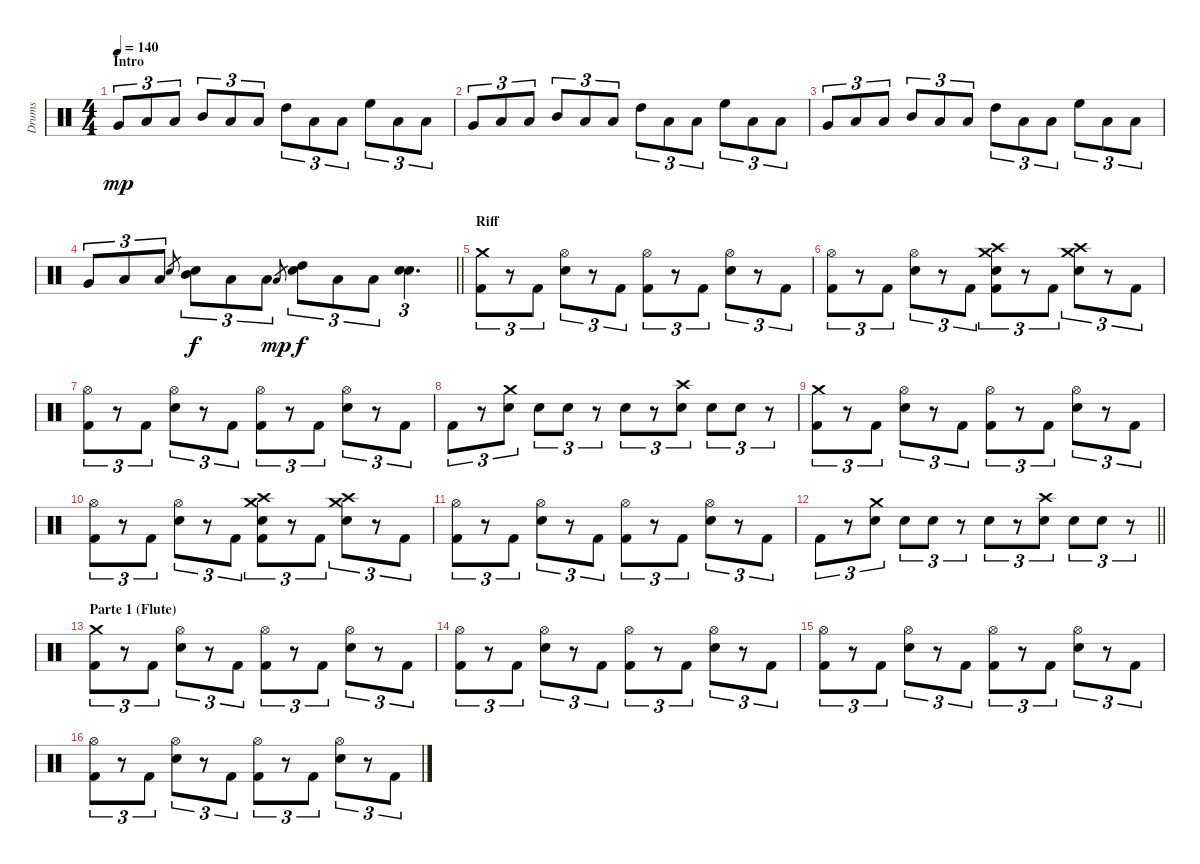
\track ("Drums" "Drums") {instrument percussion}
\staff {score}
\articulation defaults
\ts (4 4)
\section ("" "Intro")
\tempo 140
\clef neutral
\ks c "Very Low Tom (hit)".8{tu (3 2) dy mp} "Low Floor Tom (hit)".8{tu (3 2)} "Low Floor Tom (hit)".8{tu (3 2)} "Mid Tom (hit)".8{tu (3 2)} "Low Floor Tom (hit)".8{tu (3 2)} "Low Floor Tom (hit)".8{tu (3 2)} "High Tom (hit)".8{tu (3 2)} "Low Floor Tom (hit)".8{tu (3 2)} "Low Floor Tom (hit)".8{tu (3 2)} "High Floor Tom (hit)".8{tu (3 2)} "Low Floor Tom (hit)".8{tu (3 2)} "Low Floor Tom (hit)".8{tu (3 2)}
|
"Very Low Tom (hit)".8{tu (3 2)} "Low Floor Tom (hit)".8{tu (3 2)} "Low Floor Tom (hit)".8{tu (3 2)} "Mid Tom (hit)".8{tu (3 2)} "Low Floor Tom (hit)".8{tu (3 2)} "Low Floor Tom (hit)".8{tu (3 2)} "High Tom (hit)".8{tu (3 2)} "Low Floor Tom (hit)".8{tu (3 2)} "Low Floor Tom (hit)".8{tu (3 2)} "High Floor Tom (hit)".8{tu (3 2)} "Low Floor Tom (hit)".8{tu (3 2)} "Low Floor Tom (hit)".8{tu (3 2)} |
"Very Low Tom (hit)".8{tu (3 2)} "Low Floor Tom (hit)".8{tu (3 2)} "Low Floor Tom (hit)".8{tu (3 2)} "Mid Tom (hit)".8{tu (3 2)} "Low Floor Tom (hit)".8{tu (3 2)} "Low Floor Tom (hit)".8{tu (3 2)} "High Tom (hit)".8{tu (3 2)} "Low Floor Tom (hit)".8{tu (3 2)} "Low Floor Tom (hit)".8{tu (3 2)} "High Floor Tom (hit)".8{tu (3 2)} "Low Floor Tom (hit)".8{tu (3 2)} "Low Floor Tom (hit)".8{tu (3 2)} |
\barLineRight lightlight "Very Low Tom (hit)".8{tu (3 2)} "Low Floor Tom (hit)".8{tu (3 2)} "Low Floor Tom (hit)".8{tu (3 2)} "Snare (hit) 2".8{gr}
("Snare (hit) 2" "Mid Tom (hit)").8{tu (3 2) dy f} "Low Floor Tom (hit)".8{tu (3 2)} "Low Floor Tom (hit)".8{tu (3 2)} "Low Floor Tom (hit)".8{gr dy mp} ("Snare (hit) 2" "High Tom (hit)").8{tu (3 2) dy f} "Low Floor Tom (hit)".8{tu (3 2)} "Low Floor Tom (hit)".8{tu (3 2)} ("Snare (hit) 2" "Snare (hit) 2").4{d tu (3 2)} |
\section ("" "Riff")
("Crash medium (hit)" "Kick (hit) 2").8{tu (3 2)} r.8{tu (3 2)} "Kick (hit) 2".8{tu (3 2)} ("Hi-Hat (open)" "Snare (hit) 2").8{tu (3 2)} r.8{tu (3 2)} "Kick (hit) 2".8{tu (3 2)} ("Hi-Hat (open)" "Kick (hit) 2").8{tu (3 2)} r.8{tu (3 2)} "Kick (hit) 2".8{tu (3 2)} ("Hi-Hat (open)" "Snare (hit) 2").8{tu (3 2)} r.8{tu (3 2)} "Kick (hit) 2".8{tu (3 2)} |
("Hi-Hat (open)" "Kick (hit) 2").8{tu (3 2)} r.8{tu (3 2)} "Kick (hit) 2".8{tu (3 2)} ("Hi-Hat (open)" "Snare (hit) 2").8{tu (3 2)} r.8{tu (3 2)} "Kick (hit) 2".8{tu (3 2)} ("Crash medium (hit)" "Crash high (hit)" "Snare (hit) 2" "Kick (hit) 2").8{tu (3 2)} r.8{tu (3 2)} "Kick (hit) 2".8{tu (3 2)} ("Crash medium (hit)" "Crash high (hit)" "Snare (hit) 2").8{tu (3 2)} r.8{tu (3 2)} "Kick (hit) 2".8{tu (3 2)} |
("Hi-Hat (open)" "Kick (hit) 2").8{tu (3 2)} r.8{tu (3 2)} "Kick (hit) 2".8{tu (3 2)} ("Hi-Hat (open)" "Snare (hit) 2").8{tu (3 2)} r.8{tu (3 2)} "Kick (hit) 2".8{tu (3 2)} ("Hi-Hat (open)" "Kick (hit) 2").8{tu (3 2)} r.8{tu (3 2)} "Kick (hit) 2".8{tu (3 2)} ("Hi-Hat (open)" "Snare (hit) 2").8{tu (3 2)} r.8{tu (3 2)} "Kick (hit) 2".8{tu (3 2)} |
"Kick (hit) 2".8{tu (3 2)} r.8{tu (3 2)} ("Crash medium (hit)" "Snare (hit) 2").8{tu (3 2)} "Snare (hit) 2".8{tu (3 2)} "Snare (hit) 2".8{tu (3 2)} r.8{tu (3 2)} "Snare (hit) 2".8{tu (3 2)} r.8{tu (3 2)} ("Crash high (hit)" "Snare (hit) 2").8{tu (3 2)} "Snare (hit) 2".8{tu (3 2)} "Snare (hit) 2".8{tu (3 2)} r.8{tu (3 2)} |
("Crash medium (hit)" "Kick (hit) 2").8{tu (3 2)} r.8{tu (3 2)} "Kick (hit) 2".8{tu (3 2)} ("Hi-Hat (open)" "Snare (hit) 2").8{tu (3 2)} r.8{tu (3 2)} "Kick (hit) 2".8{tu (3 2)} ("Hi-Hat (open)" "Kick (hit) 2").8{tu (3 2)} r.8{tu (3 2)} "Kick (hit) 2".8{tu (3 2)} ("Hi-Hat (open)" "Snare (hit) 2").8{tu (3 2)} r.8{tu (3 2)} "Kick (hit) 2".8{tu (3 2)} |
("Hi-Hat (open)" "Kick (hit) 2").8{tu (3 2)} r.8{tu (3 2)} "Kick (hit) 2".8{tu (3 2)} ("Hi-Hat (open)" "Snare (hit) 2").8{tu (3 2)} r.8{tu (3 2)} "Kick (hit) 2".8{tu (3 2)} ("Crash medium (hit)" "Crash high (hit)" "Snare (hit) 2" "Kick (hit) 2").8{tu (3 2)} r.8{tu (3 2)} "Kick (hit) 2".8{tu (3 2)} ("Crash medium (hit)" "Crash high (hit)" "Snare (hit) 2").8{tu (3 2)} r.8{tu (3 2)} "Kick (hit) 2".8{tu (3 2)} |
("Hi-Hat (open)" "Kick (hit) 2").8{tu (3 2)} r.8{tu (3 2)} "Kick (hit) 2".8{tu (3 2)} ("Hi-Hat (open)" "Snare (hit) 2").8{tu (3 2)} r.8{tu (3 2)} "Kick (hit) 2".8{tu (3 2)} ("Hi-Hat (open)" "Kick (hit) 2").8{tu (3 2)} r.8{tu (3 2)} "Kick (hit) 2".8{tu (3 2)} ("Hi-Hat (open)" "Snare (hit) 2").8{tu (3 2)} r.8{tu (3 2)} "Kick (hit) 2".8{tu (3 2)} |
\barLineRight lightlight "Kick (hit) 2".8{tu (3 2)}
r.8{tu (3 2)} ("Crash medium (hit)" "Snare (hit) 2").8{tu (3 2)} "Snare (hit) 2".8{tu (3 2)} "Snare (hit) 2".8{tu (3 2)} r.8{tu (3 2)} "Snare (hit) 2".8{tu (3 2)} r.8{tu (3 2)} ("Crash high (hit)" "Snare (hit) 2").8{tu (3 2)} "Snare (hit) 2".8{tu (3 2)} "Snare (hit) 2".8{tu (3 2)} r.8{tu (3 2)} |
\section ("" "Parte 1 (Flute)")
("Crash medium (hit)" "Kick (hit) 2").8{tu (3 2)} r.8{tu (3 2)} "Kick (hit) 2".8{tu (3 2)} ("Hi-Hat (open)" "Snare (hit) 2").8{tu (3 2)} r.8{tu (3 2)} "Kick (hit) 2".8{tu (3 2)} ("Hi-Hat (open)" "Kick (hit) 2").8{tu (3 2)} r.8{tu (3 2)} "Kick (hit) 2".8{tu (3 2)} ("Hi-Hat (open)" "Snare (hit) 2").8{tu (3 2)} r.8{tu (3 2)} "Kick (hit) 2".8{tu (3 2)} |
("Hi-Hat (open)" "Kick (hit) 2").8{tu (3 2)} r.8{tu (3 2)} "Kick (hit) 2".8{tu (3 2)} ("Hi-Hat (open)" "Snare (hit) 2").8{tu (3 2)} r.8{tu (3 2)} "Kick (hit) 2".8{tu (3 2)} ("Hi-Hat (open)" "Kick (hit) 2").8{tu (3 2)} r.8{tu (3 2)} "Kick (hit) 2".8{tu (3 2)} ("Hi-Hat (open)" "Snare (hit) 2").8{tu (3 2)} r.8{tu (3 2)} "Kick (hit) 2".8{tu (3 2)} |
("Hi-Hat (open)" "Kick (hit) 2").8{tu (3 2)} r.8{tu (3 2)} "Kick (hit) 2".8{tu (3 2)} ("Hi-Hat (open)" "Snare (hit) 2").8{tu (3 2)} r.8{tu (3 2)} "Kick (hit) 2".8{tu (3 2)} ("Hi-Hat (open)" "Kick (hit) 2").8{tu (3 2)} r.8{tu (3 2)} "Kick (hit) 2".8{tu (3 2)} ("Hi-Hat (open)" "Snare (hit) 2").8{tu (3 2)} r.8{tu (3 2)} "Kick (hit) 2".8{tu (3 2)} |
("Hi-Hat (open)" "Kick (hit) 2").8{tu (3 2)} r.8{tu (3 2)} "Kick (hit) 2".8{tu (3 2)} ("Hi-Hat (open)" "Snare (hit) 2").8{tu (3 2)} r.8{tu (3 2)} "Kick (hit) 2".8{tu (3 2)} ("Hi-Hat (open)" "Kick (hit) 2").8{tu (3 2)} r.8{tu (3 2)} "Kick (hit) 2".8{tu (3 2)} ("Hi-Hat (open)" "Snare (hit) 2").8{tu (3 2)} r.8{tu (3 2)} "Kick (hit) 2".8{tu (3 2)}
